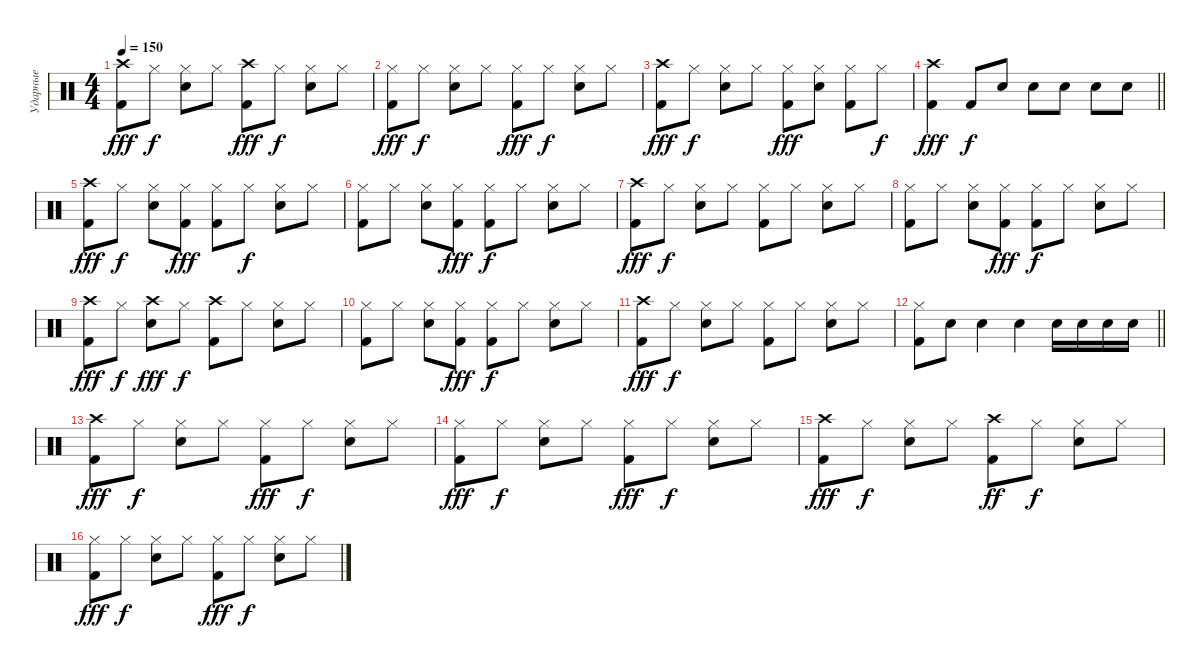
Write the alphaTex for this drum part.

\track ("Ударные" "Ударные") {instrument percussion}
\staff
\articulation defaults
\ts (4 4)
\tempo 150
\clef neutral
\ks c
("Kick (hit) 2" "Crash high (hit)").8{dy fff} "Hi-Hat (closed)".8{dy f} ("Snare (hit) 2" "Hi-Hat (closed)").8 "Hi-Hat (closed)".8 ("Kick (hit) 2" "Crash high (hit)").8{dy fff} "Hi-Hat (closed)".8{dy f} ("Snare (hit) 2" "Hi-Hat (closed)").8 "Hi-Hat (closed)".8 |
("Kick (hit) 2" "Hi-Hat (closed)").8{dy fff} "Hi-Hat (closed)".8{dy f} ("Snare (hit) 2" "Hi-Hat (closed)").8 "Hi-Hat (closed)".8 ("Kick (hit) 2" "Hi-Hat (closed)").8{dy fff} "Hi-Hat (closed)".8{dy f} ("Snare (hit) 2" "Hi-Hat (closed)").8 "Hi-Hat (closed)".8 |
("Kick (hit) 2" "Crash high (hit)").8{dy fff} "Hi-Hat (closed)".8{dy f} ("Snare (hit) 2" "Hi-Hat (closed)").8 "Hi-Hat (closed)".8 ("Kick (hit) 2" "Hi-Hat (closed)").8{dy fff} ("Snare (hit) 2" "Hi-Hat (closed)").8 ("Kick (hit) 2" "Hi-Hat (closed)").8 "Hi-Hat (closed)".8{dy f} |
\barLineRight lightlight
("Kick (hit) 2" "Crash high (hit)").4{dy fff} "Kick (hit) 2".8{dy f} "Snare (hit) 2".8 "Snare (hit) 2".8 "Snare (hit) 2".8 "Snare (hit) 2".8 "Snare (hit) 2".8 |
("Kick (hit) 2" "Crash high (hit)").8{dy fff} "Hi-Hat (closed)".8{dy f} ("Snare (hit) 2" "Hi-Hat (closed)").8 ("Kick (hit) 2" "Hi-Hat (closed)").8{dy fff} ("Kick (hit) 2" "Hi-Hat (closed)").8 "Hi-Hat (closed)".8{dy f} ("Snare (hit) 2" "Hi-Hat (closed)").8 "Hi-Hat (closed)".8 |
("Kick (hit) 2" "Hi-Hat (closed)").8 "Hi-Hat (closed)".8 ("Snare (hit) 2" "Hi-Hat (closed)").8 ("Kick (hit) 2" "Hi-Hat (closed)").8{dy fff} ("Kick (hit) 2" "Hi-Hat (closed)").8{dy f} "Hi-Hat (closed)".8 ("Snare (hit) 2" "Hi-Hat (closed)").8 "Hi-Hat (closed)".8 |
("Kick (hit) 2" "Crash high (hit)").8{dy fff} "Hi-Hat (closed)".8{dy f} ("Snare (hit) 2" "Hi-Hat (closed)").8 "Hi-Hat (closed)".8 ("Kick (hit) 2" "Hi-Hat (closed)").8 "Hi-Hat (closed)".8 ("Snare (hit) 2" "Hi-Hat (closed)").8 "Hi-Hat (closed)".8 |
("Kick (hit) 2" "Hi-Hat (closed)").8 "Hi-Hat (closed)".8 ("Snare (hit) 2" "Hi-Hat (closed)").8 ("Kick (hit) 2" "Hi-Hat (closed)").8{dy fff} ("Kick (hit) 2" "Hi-Hat (closed)").8{dy f} "Hi-Hat (closed)".8 ("Snare (hit) 2" "Hi-Hat (closed)").8 "Hi-Hat (closed)".8 |
("Kick (hit) 2" "Crash high (hit)").8{dy fff} "Hi-Hat (closed)".8{dy f} ("Snare (hit) 2" "Crash high (hit)").8{dy fff} "Hi-Hat (closed)".8{dy f} ("Kick (hit) 2" "Crash high (hit)").8 "Hi-Hat (closed)".8 ("Snare (hit) 2" "Hi-Hat (closed)").8 "Hi-Hat (closed)".8 |
("Kick (hit) 2" "Hi-Hat (closed)").8 "Hi-Hat (closed)".8 ("Snare (hit) 2" "Hi-Hat (closed)").8 ("Kick (hit) 2" "Hi-Hat (closed)").8{dy fff} ("Kick (hit) 2" "Hi-Hat (closed)").8{dy f} "Hi-Hat (closed)".8 ("Snare (hit) 2" "Hi-Hat (closed)").8 "Hi-Hat (closed)".8 |
("Kick (hit) 2" "Crash high (hit)").8{dy fff} "Hi-Hat (closed)".8{dy f} ("Snare (hit) 2" "Hi-Hat (closed)").8 "Hi-Hat (closed)".8 ("Kick (hit) 2" "Hi-Hat (closed)").8 "Hi-Hat (closed)".8 ("Snare (hit) 2" "Hi-Hat (closed)").8 "Hi-Hat (closed)".8 |
\barLineRight lightlight
("Kick (hit) 2" "Hi-Hat (closed)").8 "Snare (hit) 2".8 "Snare (hit) 2".4 "Snare (hit) 2".4 "Snare (hit) 2".16 "Snare (hit) 2".16 "Snare (hit) 2".16 "Snare (hit) 2".16 |
("Kick (hit) 2" "Crash high (hit)").8{dy fff} "Hi-Hat (closed)".8{dy f} ("Snare (hit) 2" "Hi-Hat (closed)").8 "Hi-Hat (closed)".8 ("Kick (hit) 2" "Hi-Hat (closed)").8{dy fff} "Hi-Hat (closed)".8{dy f} ("Snare (hit) 2" "Hi-Hat (closed)").8 "Hi-Hat (closed)".8 |
("Kick (hit) 2" "Hi-Hat (closed)").8{dy fff} "Hi-Hat (closed)".8{dy f} ("Snare (hit) 2" "Hi-Hat (closed)").8 "Hi-Hat (closed)".8 ("Kick (hit) 2" "Hi-Hat (closed)").8{dy fff} "Hi-Hat (closed)".8{dy f} ("Snare (hit) 2" "Hi-Hat (closed)").8 "Hi-Hat (closed)".8 |
("Kick (hit) 2" "Crash high (hit)").8{dy fff} "Hi-Hat (closed)".8{dy f} ("Snare (hit) 2" "Hi-Hat (closed)").8 "Hi-Hat (closed)".8 ("Kick (hit) 2" "Crash high (hit)").8{dy ff} "Hi-Hat (closed)".8{dy f} ("Snare (hit) 2" "Hi-Hat (closed)").8 "Hi-Hat (closed)".8 |
("Kick (hit) 2" "Hi-Hat (closed)").8{dy fff} "Hi-Hat (closed)".8{dy f} ("Snare (hit) 2" "Hi-Hat (closed)").8 "Hi-Hat (closed)".8 ("Kick (hit) 2" "Hi-Hat (closed)").8{dy fff} "Hi-Hat (closed)".8{dy f} ("Snare (hit) 2" "Hi-Hat (closed)").8 "Hi-Hat (closed)".8
